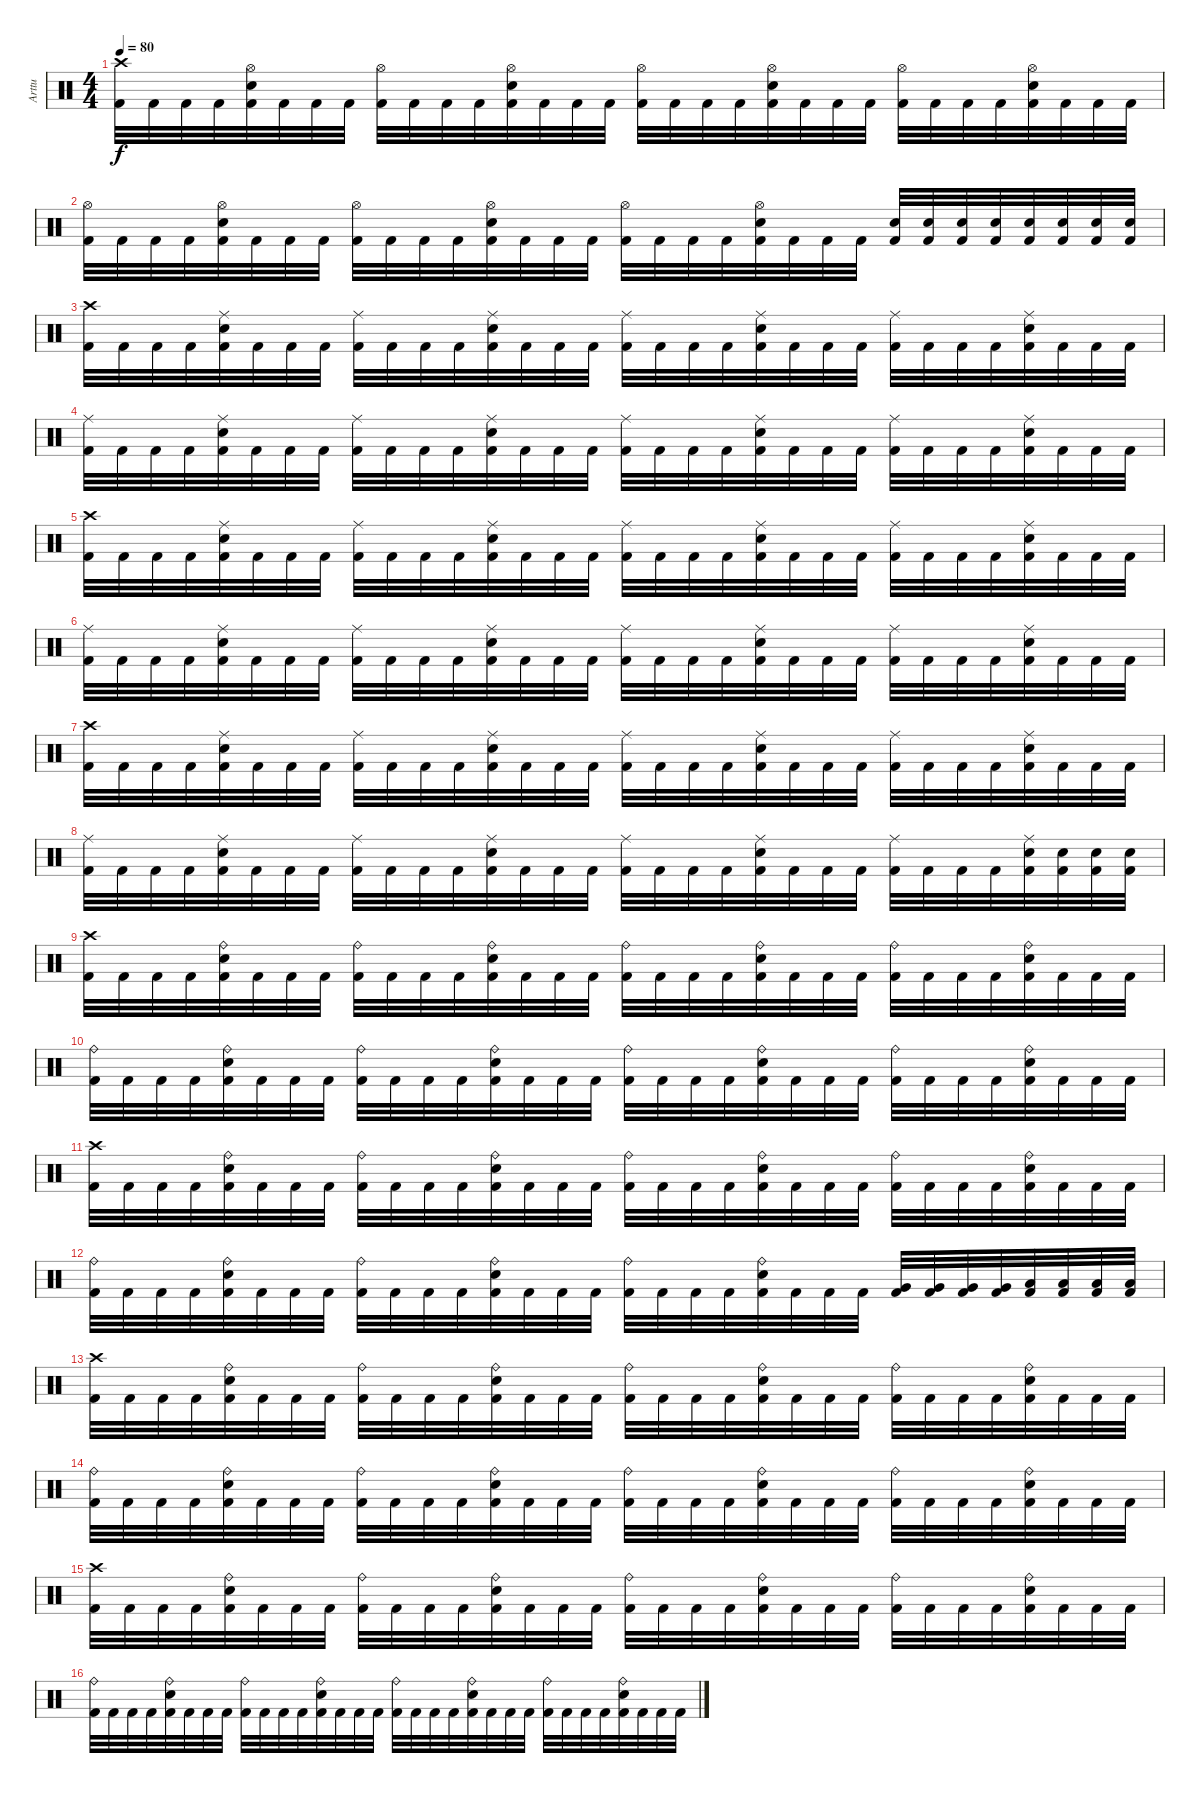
\track ("Arttu" "Arttu") {instrument percussion}
\staff {score}
\articulation defaults
\ts (4 4)
\tempo 80
\clef neutral
\ks c
("Kick (hit) 2" "Crash high (hit)").32{dy f} "Kick (hit) 2".32 "Kick (hit) 2".32 "Kick (hit) 2".32 ("Kick (hit) 2" "Electric Snare (hit)" "Hi-Hat (open)").32 "Kick (hit) 2".32 "Kick (hit) 2".32 "Kick (hit) 2".32 ("Kick (hit) 2" "Hi-Hat (open)").32 "Kick (hit) 2".32 "Kick (hit) 2".32 "Kick (hit) 2".32 ("Kick (hit) 2" "Electric Snare (hit)" "Hi-Hat (open)").32 "Kick (hit) 2".32 "Kick (hit) 2".32 "Kick (hit) 2".32 ("Kick (hit) 2" "Hi-Hat (open)").32 "Kick (hit) 2".32 "Kick (hit) 2".32 "Kick (hit) 2".32 ("Kick (hit) 2" "Electric Snare (hit)" "Hi-Hat (open)").32 "Kick (hit) 2".32 "Kick (hit) 2".32 "Kick (hit) 2".32 ("Kick (hit) 2" "Hi-Hat (open)").32 "Kick (hit) 2".32 "Kick (hit) 2".32 "Kick (hit) 2".32 ("Kick (hit) 2" "Electric Snare (hit)" "Hi-Hat (open)").32 "Kick (hit) 2".32 "Kick (hit) 2".32 "Kick (hit) 2".32 |
("Kick (hit) 2" "Hi-Hat (open)").32 "Kick (hit) 2".32 "Kick (hit) 2".32 "Kick (hit) 2".32 ("Kick (hit) 2" "Electric Snare (hit)" "Hi-Hat (open)").32 "Kick (hit) 2".32 "Kick (hit) 2".32 "Kick (hit) 2".32 ("Kick (hit) 2" "Hi-Hat (open)").32 "Kick (hit) 2".32 "Kick (hit) 2".32 "Kick (hit) 2".32 ("Kick (hit) 2" "Electric Snare (hit)" "Hi-Hat (open)").32 "Kick (hit) 2".32 "Kick (hit) 2".32 "Kick (hit) 2".32 ("Kick (hit) 2" "Hi-Hat (open)").32 "Kick (hit) 2".32 "Kick (hit) 2".32 "Kick (hit) 2".32 ("Kick (hit) 2" "Electric Snare (hit)" "Hi-Hat (open)").32 "Kick (hit) 2".32 "Kick (hit) 2".32 "Kick (hit) 2".32 ("Kick (hit) 2" "Electric Snare (hit)").32 ("Kick (hit) 2" "Electric Snare (hit)").32 ("Kick (hit) 2" "Electric Snare (hit)").32 ("Kick (hit) 2" "Electric Snare (hit)").32 ("Kick (hit) 2" "Electric Snare (hit)").32 ("Kick (hit) 2" "Electric Snare (hit)").32 ("Kick (hit) 2" "Electric Snare (hit)").32 ("Kick (hit) 2" "Electric Snare (hit)").32 |
("Kick (hit) 2" "Crash high (hit)").32 "Kick (hit) 2".32 "Kick (hit) 2".32 "Kick (hit) 2".32 ("Kick (hit) 2" "Electric Snare (hit)" "Ride (middle)").32 "Kick (hit) 2".32 "Kick (hit) 2".32 "Kick (hit) 2".32 ("Kick (hit) 2" "Ride (middle)").32 "Kick (hit) 2".32 "Kick (hit) 2".32 "Kick (hit) 2".32 ("Kick (hit) 2" "Electric Snare (hit)" "Ride (middle)").32 "Kick (hit) 2".32 "Kick (hit) 2".32 "Kick (hit) 2".32 ("Kick (hit) 2" "Ride (middle)").32 "Kick (hit) 2".32 "Kick (hit) 2".32 "Kick (hit) 2".32 ("Kick (hit) 2" "Electric Snare (hit)" "Ride (middle)").32 "Kick (hit) 2".32 "Kick (hit) 2".32 "Kick (hit) 2".32 ("Kick (hit) 2" "Ride (middle)").32 "Kick (hit) 2".32 "Kick (hit) 2".32 "Kick (hit) 2".32 ("Kick (hit) 2" "Electric Snare (hit)" "Ride (middle)").32 "Kick (hit) 2".32 "Kick (hit) 2".32 "Kick (hit) 2".32 |
("Kick (hit) 2" "Ride (middle)").32 "Kick (hit) 2".32 "Kick (hit) 2".32 "Kick (hit) 2".32 ("Kick (hit) 2" "Electric Snare (hit)" "Ride (middle)").32 "Kick (hit) 2".32 "Kick (hit) 2".32 "Kick (hit) 2".32 ("Kick (hit) 2" "Ride (middle)").32 "Kick (hit) 2".32 "Kick (hit) 2".32 "Kick (hit) 2".32 ("Kick (hit) 2" "Electric Snare (hit)" "Ride (middle)").32 "Kick (hit) 2".32 "Kick (hit) 2".32 "Kick (hit) 2".32 ("Kick (hit) 2" "Ride (middle)").32 "Kick (hit) 2".32 "Kick (hit) 2".32 "Kick (hit) 2".32 ("Kick (hit) 2" "Electric Snare (hit)" "Ride (middle)").32 "Kick (hit) 2".32 "Kick (hit) 2".32 "Kick (hit) 2".32 ("Kick (hit) 2" "Ride (middle)").32 "Kick (hit) 2".32 "Kick (hit) 2".32 "Kick (hit) 2".32 ("Kick (hit) 2" "Electric Snare (hit)" "Ride (middle)").32 "Kick (hit) 2".32 "Kick (hit) 2".32 "Kick (hit) 2".32 |
("Kick (hit) 2" "Crash high (hit)").32 "Kick (hit) 2".32 "Kick (hit) 2".32 "Kick (hit) 2".32 ("Kick (hit) 2" "Electric Snare (hit)" "Ride (middle)").32 "Kick (hit) 2".32 "Kick (hit) 2".32 "Kick (hit) 2".32 ("Kick (hit) 2" "Ride (middle)").32 "Kick (hit) 2".32 "Kick (hit) 2".32 "Kick (hit) 2".32 ("Kick (hit) 2" "Electric Snare (hit)" "Ride (middle)").32 "Kick (hit) 2".32 "Kick (hit) 2".32 "Kick (hit) 2".32 ("Kick (hit) 2" "Ride (middle)").32 "Kick (hit) 2".32 "Kick (hit) 2".32 "Kick (hit) 2".32 ("Kick (hit) 2" "Electric Snare (hit)" "Ride (middle)").32 "Kick (hit) 2".32 "Kick (hit) 2".32 "Kick (hit) 2".32 ("Kick (hit) 2" "Ride (middle)").32 "Kick (hit) 2".32 "Kick (hit) 2".32 "Kick (hit) 2".32 ("Kick (hit) 2" "Electric Snare (hit)" "Ride (middle)").32 "Kick (hit) 2".32 "Kick (hit) 2".32 "Kick (hit) 2".32 |
("Kick (hit) 2" "Ride (middle)").32 "Kick (hit) 2".32 "Kick (hit) 2".32 "Kick (hit) 2".32 ("Kick (hit) 2" "Electric Snare (hit)" "Ride (middle)").32 "Kick (hit) 2".32 "Kick (hit) 2".32 "Kick (hit) 2".32 ("Kick (hit) 2" "Ride (middle)").32 "Kick (hit) 2".32 "Kick (hit) 2".32 "Kick (hit) 2".32 ("Kick (hit) 2" "Electric Snare (hit)" "Ride (middle)").32 "Kick (hit) 2".32 "Kick (hit) 2".32 "Kick (hit) 2".32 ("Kick (hit) 2" "Ride (middle)").32 "Kick (hit) 2".32 "Kick (hit) 2".32 "Kick (hit) 2".32 ("Kick (hit) 2" "Electric Snare (hit)" "Ride (middle)").32 "Kick (hit) 2".32 "Kick (hit) 2".32 "Kick (hit) 2".32 ("Kick (hit) 2" "Ride (middle)").32 "Kick (hit) 2".32 "Kick (hit) 2".32 "Kick (hit) 2".32 ("Kick (hit) 2" "Electric Snare (hit)" "Ride (middle)").32 "Kick (hit) 2".32 "Kick (hit) 2".32 "Kick (hit) 2".32 |
("Kick (hit) 2" "Crash high (hit)").32 "Kick (hit) 2".32 "Kick (hit) 2".32 "Kick (hit) 2".32 ("Kick (hit) 2" "Electric Snare (hit)" "Ride (middle)").32 "Kick (hit) 2".32 "Kick (hit) 2".32 "Kick (hit) 2".32 ("Kick (hit) 2" "Ride (middle)").32 "Kick (hit) 2".32 "Kick (hit) 2".32 "Kick (hit) 2".32 ("Kick (hit) 2" "Electric Snare (hit)" "Ride (middle)").32 "Kick (hit) 2".32 "Kick (hit) 2".32 "Kick (hit) 2".32 ("Kick (hit) 2" "Ride (middle)").32 "Kick (hit) 2".32 "Kick (hit) 2".32 "Kick (hit) 2".32 ("Kick (hit) 2" "Electric Snare (hit)" "Ride (middle)").32 "Kick (hit) 2".32 "Kick (hit) 2".32 "Kick (hit) 2".32 ("Kick (hit) 2" "Ride (middle)").32 "Kick (hit) 2".32 "Kick (hit) 2".32 "Kick (hit) 2".32 ("Kick (hit) 2" "Electric Snare (hit)" "Ride (middle)").32 "Kick (hit) 2".32 "Kick (hit) 2".32 "Kick (hit) 2".32 |
("Kick (hit) 2" "Ride (middle)").32 "Kick (hit) 2".32 "Kick (hit) 2".32 "Kick (hit) 2".32 ("Kick (hit) 2" "Electric Snare (hit)" "Ride (middle)").32 "Kick (hit) 2".32 "Kick (hit) 2".32 "Kick (hit) 2".32 ("Kick (hit) 2" "Ride (middle)").32 "Kick (hit) 2".32 "Kick (hit) 2".32 "Kick (hit) 2".32 ("Kick (hit) 2" "Electric Snare (hit)" "Ride (middle)").32 "Kick (hit) 2".32 "Kick (hit) 2".32 "Kick (hit) 2".32 ("Kick (hit) 2" "Ride (middle)").32 "Kick (hit) 2".32 "Kick (hit) 2".32 "Kick (hit) 2".32 ("Kick (hit) 2" "Electric Snare (hit)" "Ride (middle)").32 "Kick (hit) 2".32 "Kick (hit) 2".32 "Kick (hit) 2".32 ("Kick (hit) 2" "Ride (middle)").32 "Kick (hit) 2".32 "Kick (hit) 2".32 "Kick (hit) 2".32 ("Kick (hit) 2" "Electric Snare (hit)" "Ride (middle)").32 ("Kick (hit) 2" "Electric Snare (hit)").32 ("Kick (hit) 2" "Electric Snare (hit)").32 ("Kick (hit) 2" "Electric Snare (hit)").32 |
("Kick (hit) 2" "Crash high (hit)").32 "Kick (hit) 2".32 "Kick (hit) 2".32 "Kick (hit) 2".32 ("Kick (hit) 2" "Electric Snare (hit)" "Ride (bell)").32 "Kick (hit) 2".32 "Kick (hit) 2".32 "Kick (hit) 2".32 ("Kick (hit) 2" "Ride (bell)").32 "Kick (hit) 2".32 "Kick (hit) 2".32 "Kick (hit) 2".32 ("Kick (hit) 2" "Electric Snare (hit)" "Ride (bell)").32 "Kick (hit) 2".32 "Kick (hit) 2".32 "Kick (hit) 2".32 ("Kick (hit) 2" "Ride (bell)").32 "Kick (hit) 2".32 "Kick (hit) 2".32 "Kick (hit) 2".32 ("Kick (hit) 2" "Electric Snare (hit)" "Ride (bell)").32 "Kick (hit) 2".32 "Kick (hit) 2".32 "Kick (hit) 2".32 ("Kick (hit) 2" "Ride (bell)").32 "Kick (hit) 2".32 "Kick (hit) 2".32 "Kick (hit) 2".32 ("Kick (hit) 2" "Electric Snare (hit)" "Ride (bell)").32 "Kick (hit) 2".32 "Kick (hit) 2".32 "Kick (hit) 2".32 |
("Kick (hit) 2" "Ride (bell)").32 "Kick (hit) 2".32 "Kick (hit) 2".32 "Kick (hit) 2".32 ("Kick (hit) 2" "Electric Snare (hit)" "Ride (bell)").32 "Kick (hit) 2".32 "Kick (hit) 2".32 "Kick (hit) 2".32 ("Kick (hit) 2" "Ride (bell)").32 "Kick (hit) 2".32 "Kick (hit) 2".32 "Kick (hit) 2".32 ("Kick (hit) 2" "Electric Snare (hit)" "Ride (bell)").32 "Kick (hit) 2".32 "Kick (hit) 2".32 "Kick (hit) 2".32 ("Kick (hit) 2" "Ride (bell)").32 "Kick (hit) 2".32 "Kick (hit) 2".32 "Kick (hit) 2".32 ("Kick (hit) 2" "Electric Snare (hit)" "Ride (bell)").32 "Kick (hit) 2".32 "Kick (hit) 2".32 "Kick (hit) 2".32 ("Kick (hit) 2" "Ride (bell)").32 "Kick (hit) 2".32 "Kick (hit) 2".32 "Kick (hit) 2".32 ("Kick (hit) 2" "Electric Snare (hit)" "Ride (bell)").32 "Kick (hit) 2".32 "Kick (hit) 2".32 "Kick (hit) 2".32 |
("Kick (hit) 2" "Crash high (hit)").32 "Kick (hit) 2".32 "Kick (hit) 2".32 "Kick (hit) 2".32 ("Kick (hit) 2" "Electric Snare (hit)" "Ride (bell)").32 "Kick (hit) 2".32 "Kick (hit) 2".32 "Kick (hit) 2".32 ("Kick (hit) 2" "Ride (bell)").32 "Kick (hit) 2".32 "Kick (hit) 2".32 "Kick (hit) 2".32 ("Kick (hit) 2" "Electric Snare (hit)" "Ride (bell)").32 "Kick (hit) 2".32 "Kick (hit) 2".32 "Kick (hit) 2".32 ("Kick (hit) 2" "Ride (bell)").32 "Kick (hit) 2".32 "Kick (hit) 2".32 "Kick (hit) 2".32 ("Kick (hit) 2" "Electric Snare (hit)" "Ride (bell)").32 "Kick (hit) 2".32 "Kick (hit) 2".32 "Kick (hit) 2".32 ("Kick (hit) 2" "Ride (bell)").32 "Kick (hit) 2".32 "Kick (hit) 2".32 "Kick (hit) 2".32 ("Kick (hit) 2" "Electric Snare (hit)" "Ride (bell)").32 "Kick (hit) 2".32 "Kick (hit) 2".32 "Kick (hit) 2".32 |
("Kick (hit) 2" "Ride (bell)").32 "Kick (hit) 2".32 "Kick (hit) 2".32 "Kick (hit) 2".32 ("Kick (hit) 2" "Electric Snare (hit)" "Ride (bell)").32 "Kick (hit) 2".32 "Kick (hit) 2".32 "Kick (hit) 2".32 ("Kick (hit) 2" "Ride (bell)").32 "Kick (hit) 2".32 "Kick (hit) 2".32 "Kick (hit) 2".32 ("Kick (hit) 2" "Electric Snare (hit)" "Ride (bell)").32 "Kick (hit) 2".32 "Kick (hit) 2".32 "Kick (hit) 2".32 ("Kick (hit) 2" "Ride (bell)").32 "Kick (hit) 2".32 "Kick (hit) 2".32 "Kick (hit) 2".32 ("Kick (hit) 2" "Electric Snare (hit)" "Ride (bell)").32 "Kick (hit) 2".32 "Kick (hit) 2".32 "Kick (hit) 2".32 ("Kick (hit) 2" "Very Low Tom (hit)").32 ("Kick (hit) 2" "Very Low Tom (hit)").32 ("Kick (hit) 2" "Very Low Tom (hit)").32 ("Kick (hit) 2" "Very Low Tom (hit)").32 ("Kick (hit) 2" "Low Floor Tom (hit)").32 ("Kick (hit) 2" "Low Floor Tom (hit)").32 ("Kick (hit) 2" "Low Floor Tom (hit)").32 ("Kick (hit) 2" "Low Floor Tom (hit)").32 |
("Kick (hit) 2" "Crash high (hit)").32 "Kick (hit) 2".32 "Kick (hit) 2".32 "Kick (hit) 2".32 ("Kick (hit) 2" "Electric Snare (hit)" "Ride (bell)").32 "Kick (hit) 2".32 "Kick (hit) 2".32 "Kick (hit) 2".32 ("Kick (hit) 2" "Ride (bell)").32 "Kick (hit) 2".32 "Kick (hit) 2".32 "Kick (hit) 2".32 ("Kick (hit) 2" "Electric Snare (hit)" "Ride (bell)").32 "Kick (hit) 2".32 "Kick (hit) 2".32 "Kick (hit) 2".32 ("Kick (hit) 2" "Ride (bell)").32 "Kick (hit) 2".32 "Kick (hit) 2".32 "Kick (hit) 2".32 ("Kick (hit) 2" "Electric Snare (hit)" "Ride (bell)").32 "Kick (hit) 2".32 "Kick (hit) 2".32 "Kick (hit) 2".32 ("Kick (hit) 2" "Ride (bell)").32 "Kick (hit) 2".32 "Kick (hit) 2".32 "Kick (hit) 2".32 ("Kick (hit) 2" "Electric Snare (hit)" "Ride (bell)").32 "Kick (hit) 2".32 "Kick (hit) 2".32 "Kick (hit) 2".32 |
("Kick (hit) 2" "Ride (bell)").32 "Kick (hit) 2".32 "Kick (hit) 2".32 "Kick (hit) 2".32 ("Kick (hit) 2" "Electric Snare (hit)" "Ride (bell)").32 "Kick (hit) 2".32 "Kick (hit) 2".32 "Kick (hit) 2".32 ("Kick (hit) 2" "Ride (bell)").32 "Kick (hit) 2".32 "Kick (hit) 2".32 "Kick (hit) 2".32 ("Kick (hit) 2" "Electric Snare (hit)" "Ride (bell)").32 "Kick (hit) 2".32 "Kick (hit) 2".32 "Kick (hit) 2".32 ("Kick (hit) 2" "Ride (bell)").32 "Kick (hit) 2".32 "Kick (hit) 2".32 "Kick (hit) 2".32 ("Kick (hit) 2" "Electric Snare (hit)" "Ride (bell)").32 "Kick (hit) 2".32 "Kick (hit) 2".32 "Kick (hit) 2".32 ("Kick (hit) 2" "Ride (bell)").32 "Kick (hit) 2".32 "Kick (hit) 2".32 "Kick (hit) 2".32 ("Kick (hit) 2" "Electric Snare (hit)" "Ride (bell)").32 "Kick (hit) 2".32 "Kick (hit) 2".32 "Kick (hit) 2".32 |
("Kick (hit) 2" "Crash high (hit)").32 "Kick (hit) 2".32 "Kick (hit) 2".32 "Kick (hit) 2".32 ("Kick (hit) 2" "Electric Snare (hit)" "Ride (bell)").32 "Kick (hit) 2".32 "Kick (hit) 2".32 "Kick (hit) 2".32 ("Kick (hit) 2" "Ride (bell)").32 "Kick (hit) 2".32 "Kick (hit) 2".32 "Kick (hit) 2".32 ("Kick (hit) 2" "Electric Snare (hit)" "Ride (bell)").32 "Kick (hit) 2".32 "Kick (hit) 2".32 "Kick (hit) 2".32 ("Kick (hit) 2" "Ride (bell)").32 "Kick (hit) 2".32 "Kick (hit) 2".32 "Kick (hit) 2".32 ("Kick (hit) 2" "Electric Snare (hit)" "Ride (bell)").32 "Kick (hit) 2".32 "Kick (hit) 2".32 "Kick (hit) 2".32 ("Kick (hit) 2" "Ride (bell)").32 "Kick (hit) 2".32 "Kick (hit) 2".32 "Kick (hit) 2".32 ("Kick (hit) 2" "Electric Snare (hit)" "Ride (bell)").32 "Kick (hit) 2".32 "Kick (hit) 2".32 "Kick (hit) 2".32 |
("Kick (hit) 2" "Ride (bell)").32 "Kick (hit) 2".32 "Kick (hit) 2".32 "Kick (hit) 2".32 ("Kick (hit) 2" "Electric Snare (hit)" "Ride (bell)").32 "Kick (hit) 2".32 "Kick (hit) 2".32 "Kick (hit) 2".32 ("Kick (hit) 2" "Ride (bell)").32 "Kick (hit) 2".32 "Kick (hit) 2".32 "Kick (hit) 2".32 ("Kick (hit) 2" "Electric Snare (hit)" "Ride (bell)").32 "Kick (hit) 2".32 "Kick (hit) 2".32 "Kick (hit) 2".32 ("Kick (hit) 2" "Ride (bell)").32 "Kick (hit) 2".32 "Kick (hit) 2".32 "Kick (hit) 2".32 ("Kick (hit) 2" "Electric Snare (hit)" "Ride (bell)").32 "Kick (hit) 2".32 "Kick (hit) 2".32 "Kick (hit) 2".32 ("Kick (hit) 2" "Ride (bell)").32 "Kick (hit) 2".32 "Kick (hit) 2".32 "Kick (hit) 2".32 ("Kick (hit) 2" "Electric Snare (hit)" "Ride (bell)").32 "Kick (hit) 2".32 "Kick (hit) 2".32 "Kick (hit) 2".32
